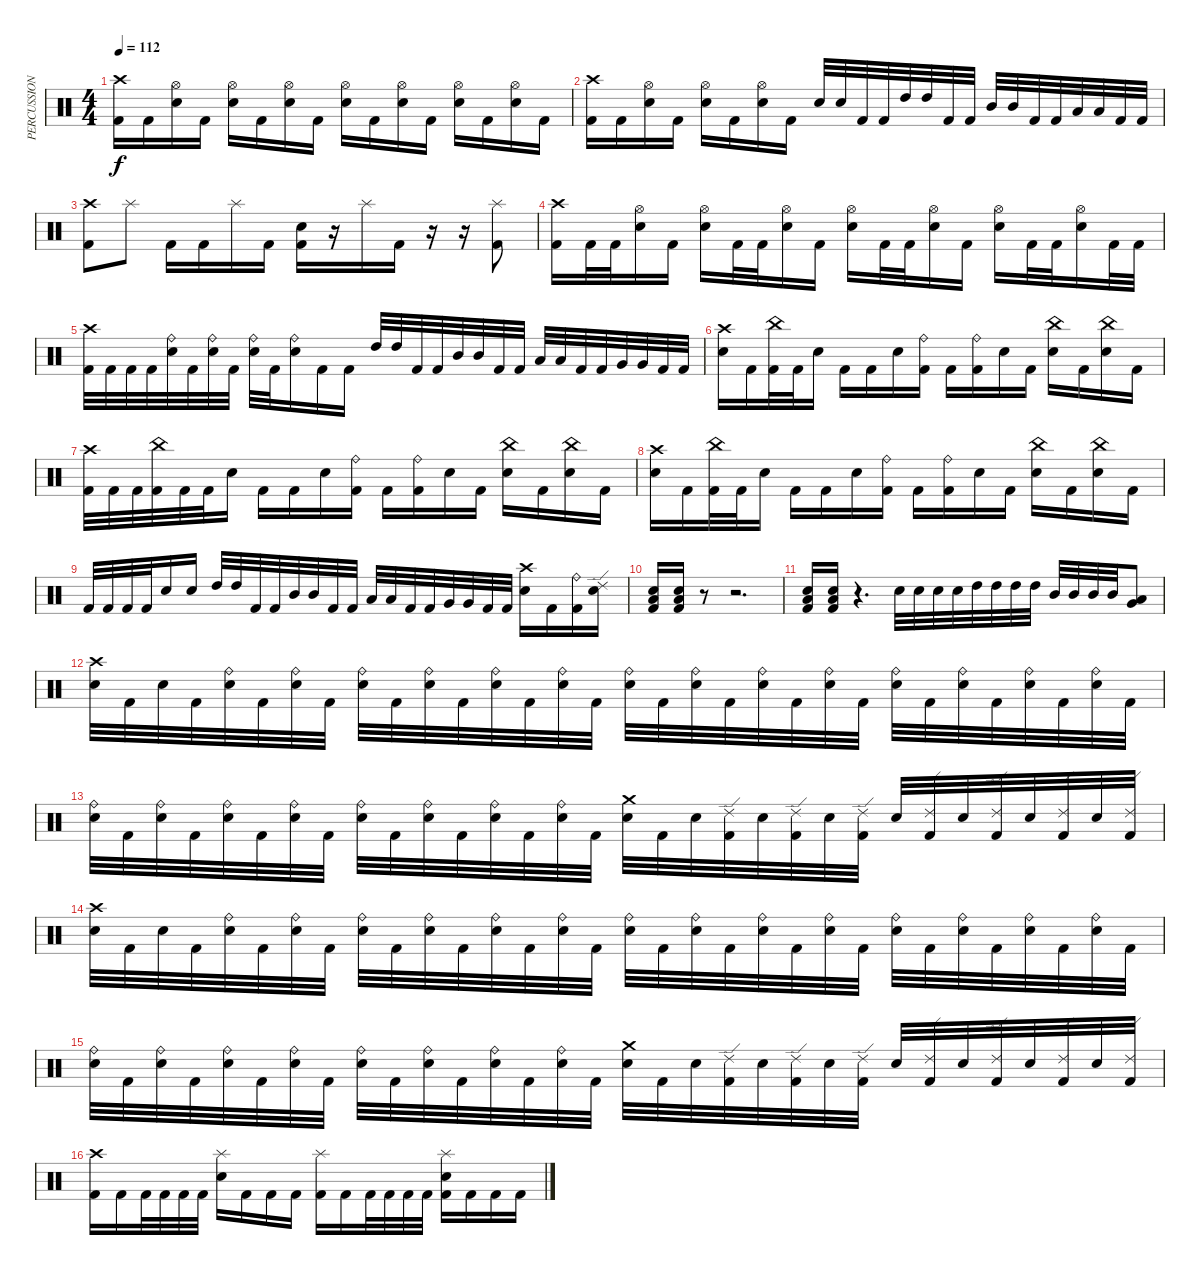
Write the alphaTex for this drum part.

\track ("PERCUSSION" "PERCUSSION") {instrument percussion}
\staff {score}
\articulation defaults
\ts (4 4)
\tempo 112
\clef neutral
\ks c
("Crash high (hit)" "Kick (hit) 2").16{dy f} "Kick (hit) 2".16 ("Hi-Hat (open)" "Electric Snare (hit)").16 "Kick (hit) 2".16 ("Hi-Hat (open)" "Electric Snare (hit)").16 "Kick (hit) 2".16 ("Hi-Hat (open)" "Electric Snare (hit)").16 "Kick (hit) 2".16 ("Hi-Hat (open)" "Electric Snare (hit)").16 "Kick (hit) 2".16 ("Hi-Hat (open)" "Electric Snare (hit)").16 "Kick (hit) 2".16 ("Hi-Hat (open)" "Electric Snare (hit)").16 "Kick (hit) 2".16 ("Hi-Hat (open)" "Electric Snare (hit)").16 "Kick (hit) 2".16 |
("Crash high (hit)" "Kick (hit) 2").16 "Kick (hit) 2".16 ("Hi-Hat (open)" "Electric Snare (hit)").16 "Kick (hit) 2".16 ("Hi-Hat (open)" "Electric Snare (hit)").16 "Kick (hit) 2".16 ("Hi-Hat (open)" "Electric Snare (hit)").16 "Kick (hit) 2".16 "Electric Snare (hit)".32 "Electric Snare (hit)".32 "Kick (hit) 2".32 "Kick (hit) 2".32 "High Tom (hit)".32 "High Tom (hit)".32 "Kick (hit) 2".32 "Kick (hit) 2".32 "Mid Tom (hit)".32 "Mid Tom (hit)".32 "Kick (hit) 2".32 "Kick (hit) 2".32 "Low Tom (hit)".32 "Low Tom (hit)".32 "Kick (hit) 2".32 "Kick (hit) 2".32 |
("Crash high (hit)" "Kick (hit) 2").8 "Splash (hit)".8 "Kick (hit) 2".16 "Kick (hit) 2".16 "Splash (hit)".16 "Kick (hit) 2".16 ("Electric Snare (hit)" "Kick (hit) 2").16 r.16 "Splash (hit)".16 "Kick (hit) 2".16 r.16 r.16 ("Splash (hit)" "Kick (hit) 2").8 |
("Crash high (hit)" "Kick (hit) 2").16 "Kick (hit) 2".32 "Kick (hit) 2".32 ("Hi-Hat (open)" "Electric Snare (hit)").16 "Kick (hit) 2".16 ("Hi-Hat (open)" "Electric Snare (hit)").16 "Kick (hit) 2".32 "Kick (hit) 2".32 ("Hi-Hat (open)" "Electric Snare (hit)").16 "Kick (hit) 2".16 ("Hi-Hat (open)" "Electric Snare (hit)").16 "Kick (hit) 2".32 "Kick (hit) 2".32 ("Hi-Hat (open)" "Electric Snare (hit)").16 "Kick (hit) 2".16 ("Hi-Hat (open)" "Electric Snare (hit)").16 "Kick (hit) 2".32 "Kick (hit) 2".32 ("Hi-Hat (open)" "Electric Snare (hit)").16 "Kick (hit) 2".32 "Kick (hit) 2".32 |
("Crash high (hit)" "Kick (hit) 2").32 "Kick (hit) 2".32 "Kick (hit) 2".32 "Kick (hit) 2".32 ("Ride (bell)" "Electric Snare (hit)").32 "Kick (hit) 2".32 ("Ride (bell)" "Electric Snare (hit)").32 "Kick (hit) 2".32 ("Ride (bell)" "Electric Snare (hit)").32 "Kick (hit) 2".32 ("Ride (bell)" "Electric Snare (hit)").16 "Kick (hit) 2".16 "Kick (hit) 2".16 "High Tom (hit)".32 "High Tom (hit)".32 "Kick (hit) 2".32 "Kick (hit) 2".32 "Mid Tom (hit)".32 "Mid Tom (hit)".32 "Kick (hit) 2".32 "Kick (hit) 2".32 "Low Tom (hit)".32 "Low Tom (hit)".32 "Kick (hit) 2".32 "Kick (hit) 2".32 "Very Low Tom (hit)".32 "Very Low Tom (hit)".32 "Kick (hit) 2".32 "Kick (hit) 2".32 |
("Crash high (hit)" "Electric Snare (hit)").16 "Kick (hit) 2".16 ("China (hit)" "Kick (hit) 2").32 "Kick (hit) 2".32 "Electric Snare (hit)".16 "Kick (hit) 2".16 "Kick (hit) 2".16 "Electric Snare (hit)".16 ("Ride (bell)" "Kick (hit) 2").16 "Kick (hit) 2".16 ("Ride (bell)" "Kick (hit) 2").16 "Electric Snare (hit)".16 "Kick (hit) 2".16 ("China (hit)" "Electric Snare (hit)").16 "Kick (hit) 2".16 ("China (hit)" "Electric Snare (hit)").16 "Kick (hit) 2".16 |
("Crash high (hit)" "Kick (hit) 2").32 "Kick (hit) 2".32 "Kick (hit) 2".32 ("China (hit)" "Kick (hit) 2").32 "Kick (hit) 2".32 "Kick (hit) 2".32 "Electric Snare (hit)".16 "Kick (hit) 2".16 "Kick (hit) 2".16 "Electric Snare (hit)".16 ("Ride (bell)" "Kick (hit) 2").16 "Kick (hit) 2".16 ("Ride (bell)" "Kick (hit) 2").16 "Electric Snare (hit)".16 "Kick (hit) 2".16 ("China (hit)" "Electric Snare (hit)").16 "Kick (hit) 2".16 ("China (hit)" "Electric Snare (hit)").16 "Kick (hit) 2".16 |
("Crash high (hit)" "Electric Snare (hit)").16 "Kick (hit) 2".16 ("China (hit)" "Kick (hit) 2").32 "Kick (hit) 2".32 "Electric Snare (hit)".16 "Kick (hit) 2".16 "Kick (hit) 2".16 "Electric Snare (hit)".16 ("Ride (bell)" "Kick (hit) 2").16 "Kick (hit) 2".16 ("Ride (bell)" "Kick (hit) 2").16 "Electric Snare (hit)".16 "Kick (hit) 2".16 ("China (hit)" "Electric Snare (hit)").16 "Kick (hit) 2".16 ("China (hit)" "Electric Snare (hit)").16 "Kick (hit) 2".16 |
"Kick (hit) 2".32 "Kick (hit) 2".32 "Kick (hit) 2".32 "Kick (hit) 2".32 "Electric Snare (hit)".16 "Electric Snare (hit)".16 "High Tom (hit)".32 "High Tom (hit)".32 "Kick (hit) 2".32 "Kick (hit) 2".32 "Mid Tom (hit)".32 "Mid Tom (hit)".32 "Kick (hit) 2".32 "Kick (hit) 2".32 "Low Tom (hit)".32 "Low Tom (hit)".32 "Kick (hit) 2".32 "Kick (hit) 2".32 "Very Low Tom (hit)".32 "Very Low Tom (hit)".32 "Kick (hit) 2".32 "Kick (hit) 2".32 ("Crash high (hit)" "Electric Snare (hit)").16 "Kick (hit) 2".16 ("Ride (bell)" "Kick (hit) 2").16 ("Ride (edge) 2" "Electric Snare (hit)").16 |
("Electric Snare (hit)" "Low Floor Tom (hit)" "Kick (hit) 2").16 ("Electric Snare (hit)" "Low Floor Tom (hit)" "Kick (hit) 2").16 r.8 r.2{d} |
("Electric Snare (hit)" "Low Floor Tom (hit)" "Kick (hit) 2").16 ("Electric Snare (hit)" "Low Floor Tom (hit)" "Kick (hit) 2").16 r.4{d} "Electric Snare (hit)".32 "Electric Snare (hit)".32 "Electric Snare (hit)".32 "Electric Snare (hit)".32 "High Tom (hit)".32 "High Tom (hit)".32 "High Tom (hit)".32 "High Tom (hit)".32 "Mid Tom (hit)".32 "Mid Tom (hit)".32 "Mid Tom (hit)".32 "Mid Tom (hit)".32 ("Very Low Tom (hit)" "Low Floor Tom (hit)").8 |
("Crash high (hit)" "Electric Snare (hit)").32 "Kick (hit) 2".32 "Electric Snare (hit)".32 "Kick (hit) 2".32 ("Ride (bell)" "Electric Snare (hit)").32 "Kick (hit) 2".32 ("Ride (bell)" "Electric Snare (hit)").32 "Kick (hit) 2".32 ("Ride (bell)" "Electric Snare (hit)").32 "Kick (hit) 2".32 ("Ride (bell)" "Electric Snare (hit)").32 "Kick (hit) 2".32 ("Ride (bell)" "Electric Snare (hit)").32 "Kick (hit) 2".32 ("Ride (bell)" "Electric Snare (hit)").32 "Kick (hit) 2".32 ("Ride (bell)" "Electric Snare (hit)").32 "Kick (hit) 2".32 ("Ride (bell)" "Electric Snare (hit)").32 "Kick (hit) 2".32 ("Ride (bell)" "Electric Snare (hit)").32 "Kick (hit) 2".32 ("Ride (bell)" "Electric Snare (hit)").32 "Kick (hit) 2".32 ("Ride (bell)" "Electric Snare (hit)").32 "Kick (hit) 2".32 ("Ride (bell)" "Electric Snare (hit)").32 "Kick (hit) 2".32 ("Ride (bell)" "Electric Snare (hit)").32 "Kick (hit) 2".32 ("Ride (bell)" "Electric Snare (hit)").32 "Kick (hit) 2".32 |
("Ride (bell)" "Electric Snare (hit)").32 "Kick (hit) 2".32 ("Ride (bell)" "Electric Snare (hit)").32 "Kick (hit) 2".32 ("Ride (bell)" "Electric Snare (hit)").32 "Kick (hit) 2".32 ("Ride (bell)" "Electric Snare (hit)").32 "Kick (hit) 2".32 ("Ride (bell)" "Electric Snare (hit)").32 "Kick (hit) 2".32 ("Ride (bell)" "Electric Snare (hit)").32 "Kick (hit) 2".32 ("Ride (bell)" "Electric Snare (hit)").32 "Kick (hit) 2".32 ("Ride (bell)" "Electric Snare (hit)").32 "Kick (hit) 2".32 ("Crash medium (hit)" "Electric Snare (hit)").32 "Kick (hit) 2".32 "Electric Snare (hit)".32 ("Ride (edge) 2" "Kick (hit) 2").32 "Electric Snare (hit)".32 ("Ride (edge) 2" "Kick (hit) 2").32 "Electric Snare (hit)".32 ("Ride (edge) 2" "Kick (hit) 2").32 "Electric Snare (hit)".32 ("Ride (edge) 2" "Kick (hit) 2").32 "Electric Snare (hit)".32 ("Ride (edge) 2" "Kick (hit) 2").32 "Electric Snare (hit)".32 ("Ride (edge) 2" "Kick (hit) 2").32 "Electric Snare (hit)".32 ("Ride (edge) 2" "Kick (hit) 2").32 |
("Crash high (hit)" "Electric Snare (hit)").32 "Kick (hit) 2".32 "Electric Snare (hit)".32 "Kick (hit) 2".32 ("Ride (bell)" "Electric Snare (hit)").32 "Kick (hit) 2".32 ("Ride (bell)" "Electric Snare (hit)").32 "Kick (hit) 2".32 ("Ride (bell)" "Electric Snare (hit)").32 "Kick (hit) 2".32 ("Ride (bell)" "Electric Snare (hit)").32 "Kick (hit) 2".32 ("Ride (bell)" "Electric Snare (hit)").32 "Kick (hit) 2".32 ("Ride (bell)" "Electric Snare (hit)").32 "Kick (hit) 2".32 ("Ride (bell)" "Electric Snare (hit)").32 "Kick (hit) 2".32 ("Ride (bell)" "Electric Snare (hit)").32 "Kick (hit) 2".32 ("Ride (bell)" "Electric Snare (hit)").32 "Kick (hit) 2".32 ("Ride (bell)" "Electric Snare (hit)").32 "Kick (hit) 2".32 ("Ride (bell)" "Electric Snare (hit)").32 "Kick (hit) 2".32 ("Ride (bell)" "Electric Snare (hit)").32 "Kick (hit) 2".32 ("Ride (bell)" "Electric Snare (hit)").32 "Kick (hit) 2".32 ("Ride (bell)" "Electric Snare (hit)").32 "Kick (hit) 2".32 |
("Ride (bell)" "Electric Snare (hit)").32 "Kick (hit) 2".32 ("Ride (bell)" "Electric Snare (hit)").32 "Kick (hit) 2".32 ("Ride (bell)" "Electric Snare (hit)").32 "Kick (hit) 2".32 ("Ride (bell)" "Electric Snare (hit)").32 "Kick (hit) 2".32 ("Ride (bell)" "Electric Snare (hit)").32 "Kick (hit) 2".32 ("Ride (bell)" "Electric Snare (hit)").32 "Kick (hit) 2".32 ("Ride (bell)" "Electric Snare (hit)").32 "Kick (hit) 2".32 ("Ride (bell)" "Electric Snare (hit)").32 "Kick (hit) 2".32 ("Crash medium (hit)" "Electric Snare (hit)").32 "Kick (hit) 2".32 "Electric Snare (hit)".32 ("Ride (edge) 2" "Kick (hit) 2").32 "Electric Snare (hit)".32 ("Ride (edge) 2" "Kick (hit) 2").32 "Electric Snare (hit)".32 ("Ride (edge) 2" "Kick (hit) 2").32 "Electric Snare (hit)".32 ("Ride (edge) 2" "Kick (hit) 2").32 "Electric Snare (hit)".32 ("Ride (edge) 2" "Kick (hit) 2").32 "Electric Snare (hit)".32 ("Ride (edge) 2" "Kick (hit) 2").32 "Electric Snare (hit)".32 ("Ride (edge) 2" "Kick (hit) 2").32 |
("Crash high (hit)" "Kick (hit) 2").16 "Kick (hit) 2".16 "Kick (hit) 2".32 "Kick (hit) 2".32 "Kick (hit) 2".32 "Kick (hit) 2".32 ("Splash (hit)" "Electric Snare (hit)").16 "Kick (hit) 2".16 "Kick (hit) 2".16 "Kick (hit) 2".16 ("Splash (hit)" "Kick (hit) 2").16 "Kick (hit) 2".16 "Kick (hit) 2".32 "Kick (hit) 2".32 "Kick (hit) 2".32 "Kick (hit) 2".32 ("Splash (hit)" "Electric Snare (hit)" "Kick (hit) 2").16 "Kick (hit) 2".16 "Kick (hit) 2".16 "Kick (hit) 2".16
